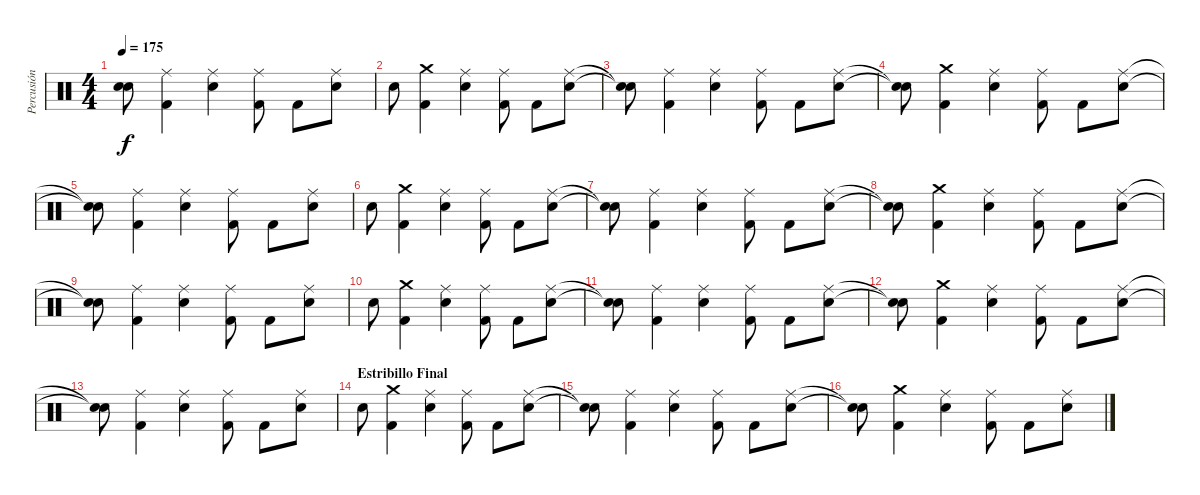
\track ("Percusión" "Percusión") {instrument percussion}
\staff {score}
\articulation defaults
\ts (4 4)
\tempo 175
\clef neutral
\ks c
("Snare (hit)"{t} "Snare (hit) 2"{t}).8{dy f} ("Ride (middle)" "Kick (hit) 2").4 ("Snare (hit) 2" "Ride (middle)").4 ("Ride (middle)" "Kick (hit) 2").8 "Kick (hit) 2".8 ("Ride (middle)" "Snare (hit) 2").8 |
"Snare (hit) 2".8 ("Crash medium (hit)" "Kick (hit) 2").4 ("Snare (hit) 2" "Ride (middle)").4 ("Ride (middle)" "Kick (hit) 2").8 "Kick (hit) 2".8 ("Ride (middle)" "Snare (hit) 2").8 |
("Snare (hit)"{t} "Snare (hit) 2"{t}).8 ("Ride (middle)" "Kick (hit) 2").4 ("Snare (hit) 2" "Ride (middle)").4 ("Ride (middle)" "Kick (hit) 2").8 "Kick (hit) 2".8 ("Ride (middle)" "Snare (hit) 2").8 |
("Snare (hit)"{t} "Snare (hit) 2"{t}).8 ("Crash medium (hit)" "Kick (hit) 2").4 ("Snare (hit) 2" "Ride (middle)").4 ("Ride (middle)" "Kick (hit) 2").8 "Kick (hit) 2".8 ("Ride (middle)" "Snare (hit) 2").8 |
("Snare (hit)"{t} "Snare (hit) 2"{t}).8 ("Ride (middle)" "Kick (hit) 2").4 ("Snare (hit) 2" "Ride (middle)").4 ("Ride (middle)" "Kick (hit) 2").8 "Kick (hit) 2".8 ("Ride (middle)" "Snare (hit) 2").8 |
"Snare (hit) 2".8 ("Crash medium (hit)" "Kick (hit) 2").4 ("Snare (hit) 2" "Ride (middle)").4 ("Ride (middle)" "Kick (hit) 2").8 "Kick (hit) 2".8 ("Ride (middle)" "Snare (hit) 2").8 |
("Snare (hit)"{t} "Snare (hit) 2"{t}).8 ("Ride (middle)" "Kick (hit) 2").4 ("Snare (hit) 2" "Ride (middle)").4 ("Ride (middle)" "Kick (hit) 2").8 "Kick (hit) 2".8 ("Ride (middle)" "Snare (hit) 2").8 |
("Snare (hit)"{t} "Snare (hit) 2"{t}).8 ("Crash medium (hit)" "Kick (hit) 2").4 ("Snare (hit) 2" "Ride (middle)").4 ("Ride (middle)" "Kick (hit) 2").8 "Kick (hit) 2".8 ("Ride (middle)" "Snare (hit) 2").8 |
("Snare (hit)"{t} "Snare (hit) 2"{t}).8 ("Ride (middle)" "Kick (hit) 2").4 ("Snare (hit) 2" "Ride (middle)").4 ("Ride (middle)" "Kick (hit) 2").8 "Kick (hit) 2".8 ("Ride (middle)" "Snare (hit) 2").8 |
"Snare (hit) 2".8 ("Crash medium (hit)" "Kick (hit) 2").4 ("Snare (hit) 2" "Ride (middle)").4 ("Ride (middle)" "Kick (hit) 2").8 "Kick (hit) 2".8 ("Ride (middle)" "Snare (hit) 2").8 |
("Snare (hit)"{t} "Snare (hit) 2"{t}).8 ("Ride (middle)" "Kick (hit) 2").4 ("Snare (hit) 2" "Ride (middle)").4 ("Ride (middle)" "Kick (hit) 2").8 "Kick (hit) 2".8 ("Ride (middle)" "Snare (hit) 2").8 |
("Snare (hit)"{t} "Snare (hit) 2"{t}).8 ("Crash medium (hit)" "Kick (hit) 2").4 ("Snare (hit) 2" "Ride (middle)").4 ("Ride (middle)" "Kick (hit) 2").8 "Kick (hit) 2".8 ("Ride (middle)" "Snare (hit) 2").8 |
("Snare (hit)"{t} "Snare (hit) 2"{t}).8 ("Ride (middle)" "Kick (hit) 2").4 ("Snare (hit) 2" "Ride (middle)").4 ("Ride (middle)" "Kick (hit) 2").8 "Kick (hit) 2".8 ("Ride (middle)" "Snare (hit) 2").8 |
\section ("" "Estribillo Final")
"Snare (hit) 2".8 ("Crash medium (hit)" "Kick (hit) 2").4 ("Snare (hit) 2" "Ride (middle)").4 ("Ride (middle)" "Kick (hit) 2").8 "Kick (hit) 2".8 ("Ride (middle)" "Snare (hit) 2").8 |
("Snare (hit)"{t} "Snare (hit) 2"{t}).8 ("Ride (middle)" "Kick (hit) 2").4 ("Snare (hit) 2" "Ride (middle)").4 ("Ride (middle)" "Kick (hit) 2").8 "Kick (hit) 2".8 ("Ride (middle)" "Snare (hit) 2").8 |
("Snare (hit)"{t} "Snare (hit) 2"{t}).8 ("Crash medium (hit)" "Kick (hit) 2").4 ("Snare (hit) 2" "Ride (middle)").4 ("Ride (middle)" "Kick (hit) 2").8 "Kick (hit) 2".8 ("Ride (middle)" "Snare (hit) 2").8
